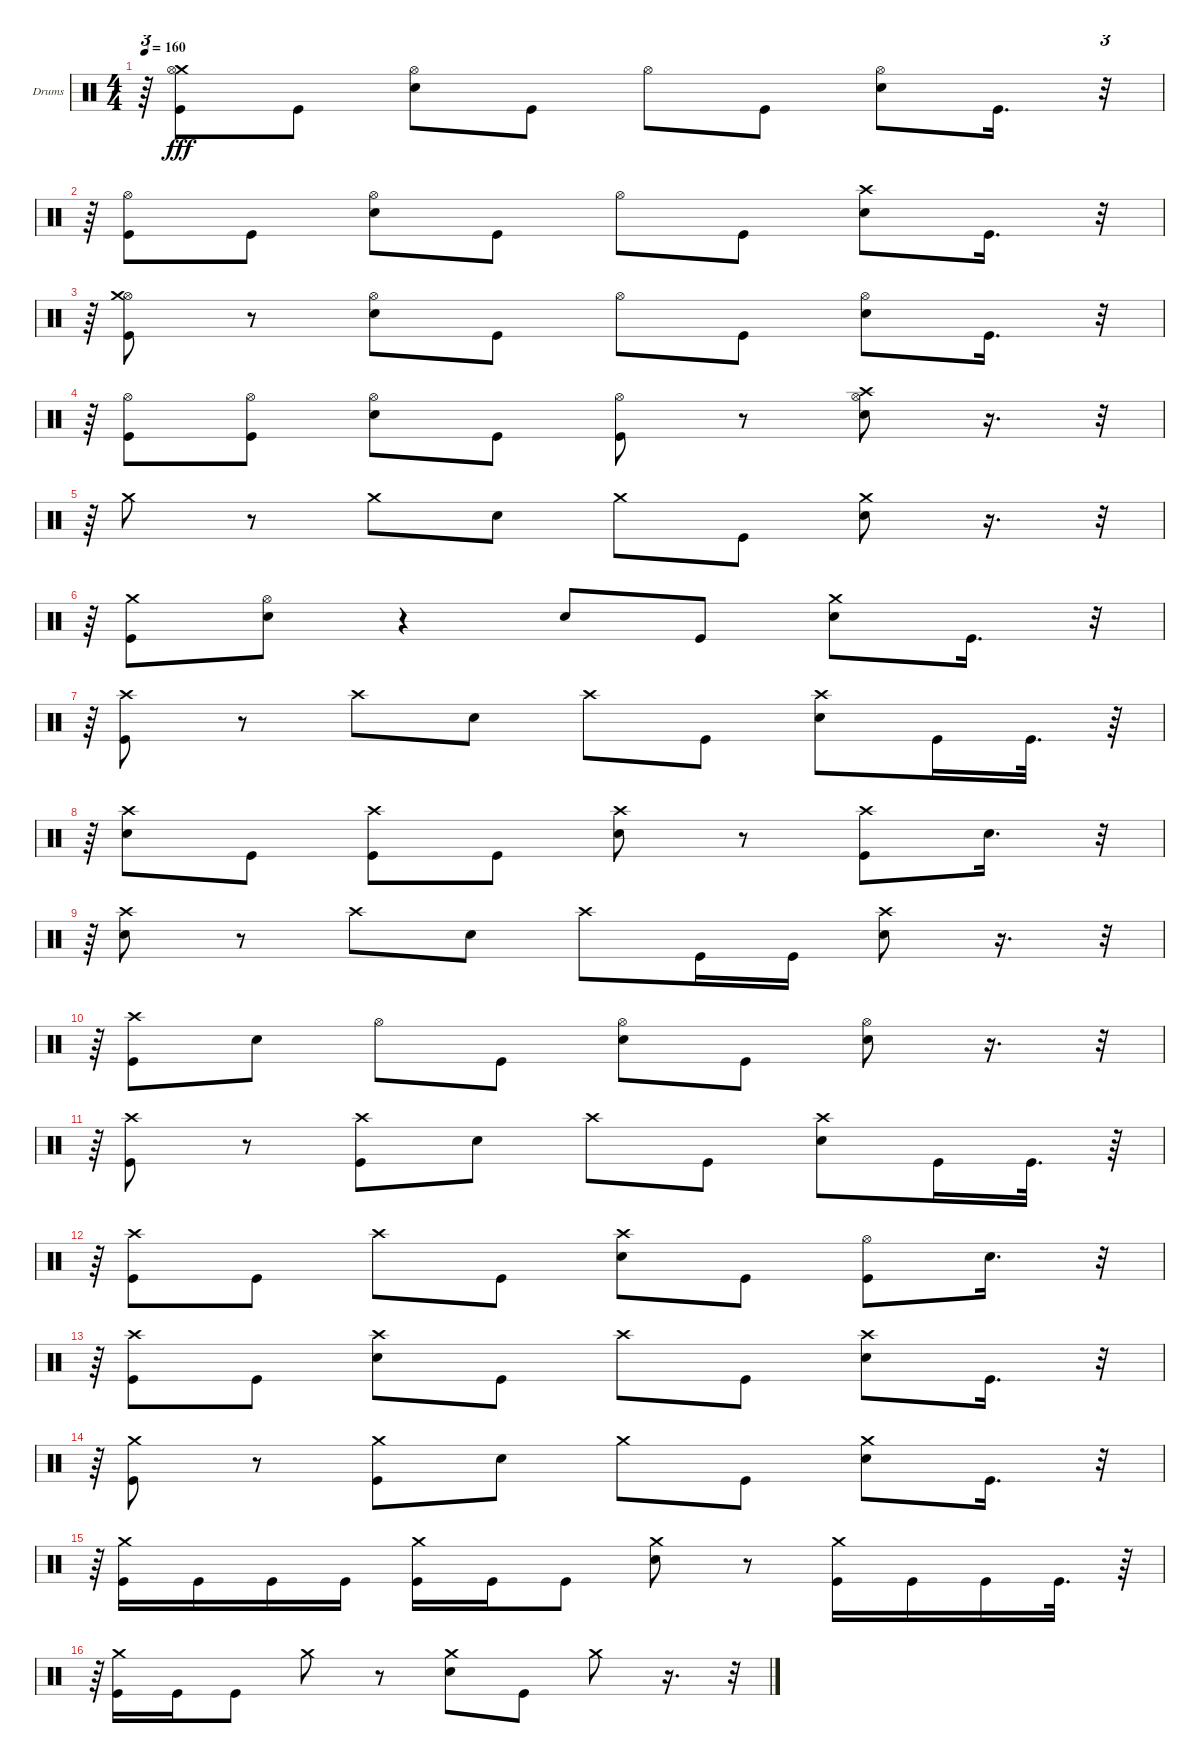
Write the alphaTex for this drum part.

\bracketExtendMode groupsimilarinstruments
\firstSystemTrackNameOrientation horizontal
\otherSystemsTrackNameOrientation horizontal
\track ("Drums" "Drums") {instrument percussion}
\staff {score}
\articulation defaults
\ts (4 4)
\tempo 160
\clef neutral
\ks c
r.64{tu (3 2) dy fff} ("Crash medium (hit)" "Hi-Hat (open)" "Kick (hit)").8 "Kick (hit)".8 ("Snare (hit) 2" "Hi-Hat (open)").8 "Kick (hit)".8 "Hi-Hat (open)".8 "Kick (hit)".8 ("Snare (hit) 2" "Hi-Hat (open)").8 "Kick (hit)".16{d} r.32{tu (3 2)} |
r.64{tu (3 2)} ("Hi-Hat (open)" "Kick (hit)").8 "Kick (hit)".8 ("Snare (hit) 2" "Hi-Hat (open)").8 "Kick (hit)".8 "Hi-Hat (open)".8 "Kick (hit)".8 ("Snare (hit) 2" "Crash high (hit)").8 "Kick (hit)".16{d} r.32{tu (3 2)} |
r.64{tu (3 2)} ("Hi-Hat (open)" "Crash medium (hit)" "Kick (hit)").8 r.8 ("Snare (hit) 2" "Hi-Hat (open)").8 "Kick (hit)".8 "Hi-Hat (open)".8 "Kick (hit)".8 ("Snare (hit) 2" "Hi-Hat (open)").8 "Kick (hit)".16{d} r.32{tu (3 2)} |
r.64{tu (3 2)} ("Hi-Hat (open)" "Kick (hit)").8 ("Hi-Hat (open)" "Kick (hit)").8 ("Snare (hit) 2" "Hi-Hat (open)").8 "Kick (hit)".8 ("Hi-Hat (open)" "Kick (hit)").8 r.8 ("Snare (hit) 2" "Hi-Hat (open)" "Crash high (hit)").8 r.16{d} r.32{tu (3 2)} |
r.64{tu (3 2)} "Crash medium (hit)".8 r.8 "Crash medium (hit)".8 "Snare (hit) 2".8 "Crash medium (hit)".8 "Kick (hit)".8 ("Crash medium (hit)" "Snare (hit) 2").8 r.16{d} r.32{tu (3 2)} |
r.64{tu (3 2)} ("Crash medium (hit)" "Kick (hit)").8 ("Hi-Hat (open)" "Snare (hit) 2").8 r.4 "Snare (hit) 2".8 "Kick (hit)".8 ("Snare (hit) 2" "Crash medium (hit)").8 "Kick (hit)".16{d} r.32{tu (3 2)} |
r.64{tu (3 2)} ("Kick (hit)" "Crash high (hit)").8 r.8 "Crash high (hit)".8 "Snare (hit) 2".8 "Crash high (hit)".8 "Kick (hit)".8 ("Snare (hit) 2" "Crash high (hit)").8 "Kick (hit)".16 "Kick (hit)".32{d} r.64 |
r.64{tu (3 2)} ("Snare (hit) 2" "Crash high (hit)").8 "Kick (hit)".8 ("Kick (hit)" "Crash high (hit)").8 "Kick (hit)".8 ("Snare (hit) 2" "Crash high (hit)").8 r.8 ("Kick (hit)" "Crash high (hit)").8 "Snare (hit) 2".16{d} r.32{tu (3 2)} |
r.64{tu (3 2)} ("Snare (hit) 2" "Crash high (hit)").8 r.8 "Crash high (hit)".8 "Snare (hit) 2".8 "Crash high (hit)".8 "Kick (hit)".16 "Kick (hit)".16 ("Snare (hit) 2" "Crash high (hit)").8 r.16{d} r.32{tu (3 2)} |
r.64{tu (3 2)} ("Kick (hit)" "Crash high (hit)").8 "Snare (hit) 2".8 "Hi-Hat (open)".8 "Kick (hit)".8 ("Snare (hit) 2" "Hi-Hat (open)").8 "Kick (hit)".8 ("Snare (hit) 2" "Hi-Hat (open)").8 r.16{d} r.32{tu (3 2)} |
r.64{tu (3 2)} ("Kick (hit)" "Crash high (hit)").8 r.8 ("Kick (hit)" "Crash high (hit)").8 "Snare (hit) 2".8 "Crash high (hit)".8 "Kick (hit)".8 ("Snare (hit) 2" "Crash high (hit)").8 "Kick (hit)".16 "Kick (hit)".32{d} r.64 |
r.64{tu (3 2)} ("Kick (hit)" "Crash high (hit)").8 "Kick (hit)".8 "Crash high (hit)".8 "Kick (hit)".8 ("Snare (hit) 2" "Crash high (hit)").8 "Kick (hit)".8 ("Hi-Hat (open)" "Kick (hit)").8 "Snare (hit) 2".16{d} r.32{tu (3 2)} |
r.64{tu (3 2)} ("Kick (hit)" "Crash high (hit)").8 "Kick (hit)".8 ("Snare (hit) 2" "Crash high (hit)").8 "Kick (hit)".8 "Crash high (hit)".8 "Kick (hit)".8 ("Snare (hit) 2" "Crash high (hit)").8 "Kick (hit)".16{d} r.32{tu (3 2)} |
r.64{tu (3 2)} ("Kick (hit)" "Crash medium (hit)").8 r.8 ("Kick (hit)" "Crash medium (hit)").8 "Snare (hit) 2".8 "Crash medium (hit)".8 "Kick (hit)".8 ("Snare (hit) 2" "Crash medium (hit)").8 "Kick (hit)".16{d} r.32{tu (3 2)} |
r.64{tu (3 2)} ("Crash medium (hit)" "Kick (hit)").16 "Kick (hit)".16 "Kick (hit)".16 "Kick (hit)".16 ("Crash medium (hit)" "Kick (hit)").16 "Kick (hit)".16 "Kick (hit)".8 ("Crash medium (hit)" "Snare (hit) 2").8 r.8 ("Crash medium (hit)" "Kick (hit)").16 "Kick (hit)".16 "Kick (hit)".16 "Kick (hit)".32{d} r.64 |
r.64{tu (3 2)} ("Crash medium (hit)" "Kick (hit)").16 "Kick (hit)".16 "Kick (hit)".8 "Crash medium (hit)".8 r.8 ("Snare (hit) 2" "Crash medium (hit)").8 "Kick (hit)".8 "Crash medium (hit)".8 r.16{d} r.32{tu (3 2)}
